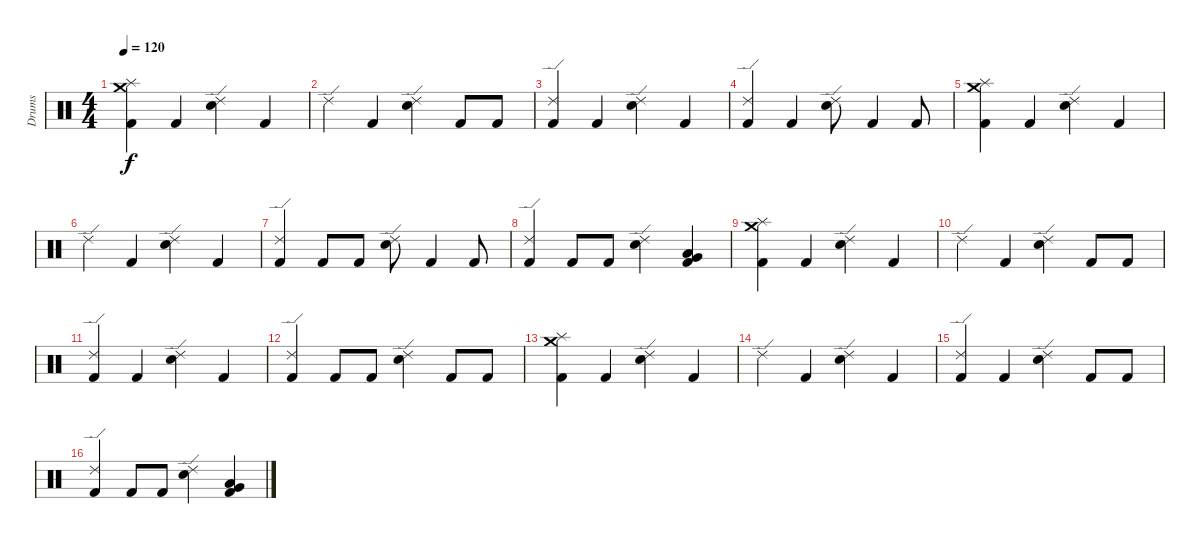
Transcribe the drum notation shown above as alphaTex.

\track ("Drums" "Drums") {instrument percussion}
\staff {score}
\articulation defaults
\ts (4 4)
\tempo 120
\clef neutral
\ks c
("Crash medium (hit)" "Splash (hit)" "Kick (hit) 2").4{dy f} "Kick (hit) 2".4 ("Ride (edge) 2" "Electric Snare (hit)").4 "Kick (hit) 2".4 |
"Ride (edge) 2".4 "Kick (hit) 2".4 ("Ride (edge) 2" "Electric Snare (hit)").4 "Kick (hit) 2".8 "Kick (hit) 2".8 |
("Ride (edge) 2" "Kick (hit) 2").4 "Kick (hit) 2".4 ("Ride (edge) 2" "Electric Snare (hit)").4 "Kick (hit) 2".4 |
("Ride (edge) 2" "Kick (hit) 2").4 "Kick (hit) 2".4 ("Ride (edge) 2" "Electric Snare (hit)").8 "Kick (hit) 2".4 "Kick (hit) 2".8 |
("Crash medium (hit)" "Splash (hit)" "Kick (hit) 2").4 "Kick (hit) 2".4 ("Ride (edge) 2" "Electric Snare (hit)").4 "Kick (hit) 2".4 |
"Ride (edge) 2".4 "Kick (hit) 2".4 ("Ride (edge) 2" "Electric Snare (hit)").4 "Kick (hit) 2".4 |
("Ride (edge) 2" "Kick (hit) 2").4 "Kick (hit) 2".8 "Kick (hit) 2".8 ("Ride (edge) 2" "Electric Snare (hit)").8 "Kick (hit) 2".4 "Kick (hit) 2".8 |
("Ride (edge) 2" "Kick (hit) 2").4 "Kick (hit) 2".8 "Kick (hit) 2".8 ("Ride (edge) 2" "Electric Snare (hit)").4 ("Low Floor Tom (hit)" "Very Low Tom (hit)" "Kick (hit) 2").4 |
("Crash medium (hit)" "Splash (hit)" "Kick (hit) 2").4 "Kick (hit) 2".4 ("Ride (edge) 2" "Electric Snare (hit)").4 "Kick (hit) 2".4 |
"Ride (edge) 2".4 "Kick (hit) 2".4 ("Ride (edge) 2" "Electric Snare (hit)").4 "Kick (hit) 2".8 "Kick (hit) 2".8 |
("Ride (edge) 2" "Kick (hit) 2").4 "Kick (hit) 2".4 ("Ride (edge) 2" "Electric Snare (hit)").4 "Kick (hit) 2".4 |
("Ride (edge) 2" "Kick (hit) 2").4 "Kick (hit) 2".8 "Kick (hit) 2".8 ("Ride (edge) 2" "Electric Snare (hit)").4 "Kick (hit) 2".8 "Kick (hit) 2".8 |
("Crash medium (hit)" "Splash (hit)" "Kick (hit) 2").4 "Kick (hit) 2".4 ("Ride (edge) 2" "Electric Snare (hit)").4 "Kick (hit) 2".4 |
"Ride (edge) 2".4 "Kick (hit) 2".4 ("Ride (edge) 2" "Electric Snare (hit)").4 "Kick (hit) 2".4 |
("Ride (edge) 2" "Kick (hit) 2").4 "Kick (hit) 2".4 ("Ride (edge) 2" "Electric Snare (hit)").4 "Kick (hit) 2".8 "Kick (hit) 2".8 |
("Ride (edge) 2" "Kick (hit) 2").4 "Kick (hit) 2".8 "Kick (hit) 2".8 ("Ride (edge) 2" "Electric Snare (hit)").4 ("Low Floor Tom (hit)" "Very Low Tom (hit)" "Kick (hit) 2").4
